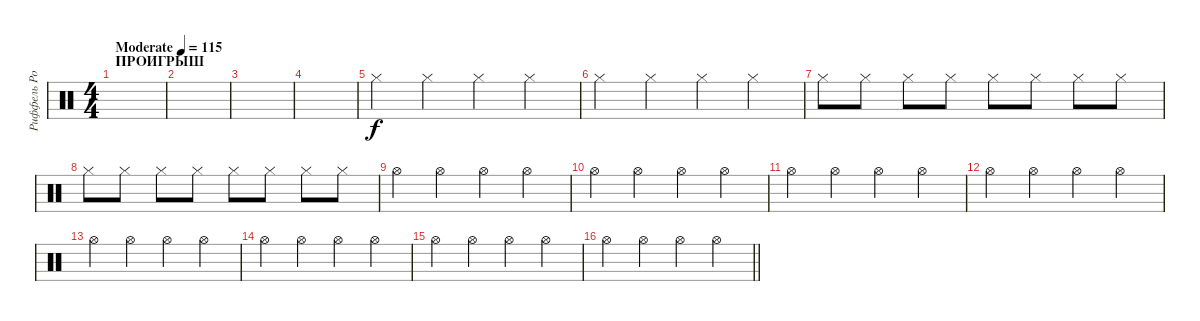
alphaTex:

\track ("Риффель Роман (хэты)" "Риффель Ро") {instrument percussion}
\staff {score}
\articulation defaults
\ts (4 4)
\section ("" "ПРОИГРЫШ")
\tempo (115 "Moderate")
\clef neutral
\ks c
|
|
|
|
"Hi-Hat (closed)".4 "Hi-Hat (closed)".4 "Hi-Hat (closed)".4 "Hi-Hat (closed)".4 |
"Hi-Hat (closed)".4 "Hi-Hat (closed)".4 "Hi-Hat (closed)".4 "Hi-Hat (closed)".4 |
"Hi-Hat (closed)".8 "Hi-Hat (closed)".8 "Hi-Hat (closed)".8 "Hi-Hat (closed)".8 "Hi-Hat (closed)".8 "Hi-Hat (closed)".8 "Hi-Hat (closed)".8 "Hi-Hat (closed)".8 |
"Hi-Hat (closed)".8 "Hi-Hat (closed)".8 "Hi-Hat (closed)".8 "Hi-Hat (closed)".8 "Hi-Hat (closed)".8 "Hi-Hat (closed)".8 "Hi-Hat (closed)".8 "Hi-Hat (closed)".8 |
"Hi-Hat (open)".4 "Hi-Hat (open)".4 "Hi-Hat (open)".4 "Hi-Hat (open)".4 |
"Hi-Hat (open)".4 "Hi-Hat (open)".4 "Hi-Hat (open)".4 "Hi-Hat (open)".4 |
"Hi-Hat (open)".4 "Hi-Hat (open)".4 "Hi-Hat (open)".4 "Hi-Hat (open)".4 |
"Hi-Hat (open)".4 "Hi-Hat (open)".4 "Hi-Hat (open)".4 "Hi-Hat (open)".4 |
"Hi-Hat (open)".4 "Hi-Hat (open)".4 "Hi-Hat (open)".4 "Hi-Hat (open)".4 |
"Hi-Hat (open)".4 "Hi-Hat (open)".4 "Hi-Hat (open)".4 "Hi-Hat (open)".4 |
"Hi-Hat (open)".4 "Hi-Hat (open)".4 "Hi-Hat (open)".4 "Hi-Hat (open)".4 |
\barLineRight lightlight "Hi-Hat (open)".4 "Hi-Hat (open)".4 "Hi-Hat (open)".4 "Hi-Hat (open)".4
